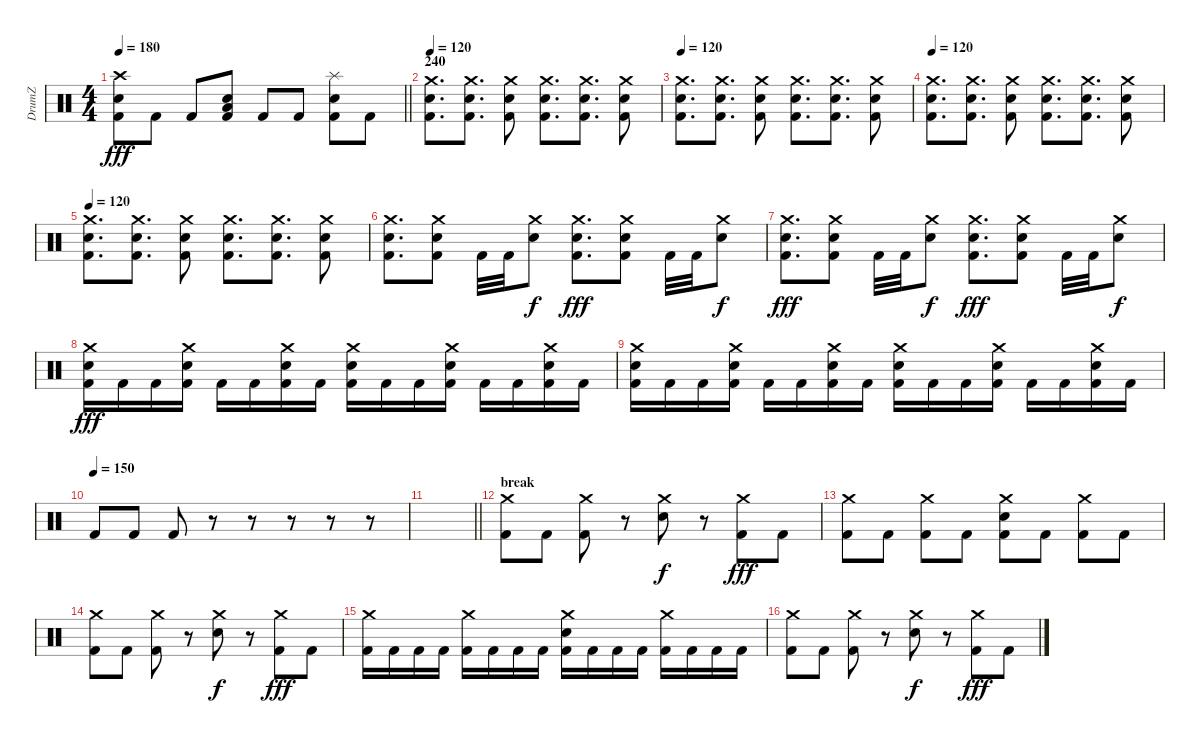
\track ("DrumZ" "DrumZ") {instrument percussion}
\staff {score}
\articulation defaults
\ts (4 4)
\tempo 180
\clef neutral
\barLineRight lightlight
\ks c
("Crash high (hit)" "Electric Snare (hit)" "Kick (hit) 2").8{dy fff} "Kick (hit) 2".8 "Kick (hit) 2".8 ("Low Floor Tom (hit)" "Electric Snare (hit)" "Kick (hit) 2").8 "Kick (hit) 2".8 "Kick (hit) 2".8 ("Splash (hit)" "Electric Snare (hit)" "Kick (hit) 2").8 "Kick (hit) 2".8 |
\section ("" "240")
\tempo 120
("Crash medium (hit)" "Electric Snare (hit)" "Kick (hit) 2").8{d} ("Crash medium (hit)" "Electric Snare (hit)" "Kick (hit) 2").8{d} ("Crash medium (hit)" "Electric Snare (hit)" "Kick (hit) 2").8 ("Crash medium (hit)" "Electric Snare (hit)" "Kick (hit) 2").8{d} ("Crash medium (hit)" "Electric Snare (hit)" "Kick (hit) 2").8{d} ("Crash medium (hit)" "Electric Snare (hit)" "Kick (hit) 2").8 |
\tempo 120
("Crash medium (hit)" "Electric Snare (hit)" "Kick (hit) 2").8{d} ("Crash medium (hit)" "Electric Snare (hit)" "Kick (hit) 2").8{d} ("Crash medium (hit)" "Electric Snare (hit)" "Kick (hit) 2").8 ("Crash medium (hit)" "Electric Snare (hit)" "Kick (hit) 2").8{d} ("Crash medium (hit)" "Electric Snare (hit)" "Kick (hit) 2").8{d} ("Crash medium (hit)" "Electric Snare (hit)" "Kick (hit) 2").8 |
\tempo 120
("Crash medium (hit)" "Electric Snare (hit)" "Kick (hit) 2").8{d} ("Crash medium (hit)" "Electric Snare (hit)" "Kick (hit) 2").8{d} ("Crash medium (hit)" "Electric Snare (hit)" "Kick (hit) 2").8 ("Crash medium (hit)" "Electric Snare (hit)" "Kick (hit) 2").8{d} ("Crash medium (hit)" "Electric Snare (hit)" "Kick (hit) 2").8{d} ("Crash medium (hit)" "Electric Snare (hit)" "Kick (hit) 2").8 |
\tempo 120
("Crash medium (hit)" "Electric Snare (hit)" "Kick (hit) 2").8{d} ("Crash medium (hit)" "Electric Snare (hit)" "Kick (hit) 2").8{d} ("Crash medium (hit)" "Electric Snare (hit)" "Kick (hit) 2").8 ("Crash medium (hit)" "Electric Snare (hit)" "Kick (hit) 2").8{d} ("Crash medium (hit)" "Electric Snare (hit)" "Kick (hit) 2").8{d} ("Crash medium (hit)" "Electric Snare (hit)" "Kick (hit) 2").8 |
("Crash medium (hit)" "Electric Snare (hit)" "Kick (hit) 2").8{d} ("Crash medium (hit)" "Electric Snare (hit)" "Kick (hit) 2").8 "Kick (hit) 2".32 "Kick (hit) 2".32 ("Crash medium (hit)" "Electric Snare (hit)").8{dy f} ("Crash medium (hit)" "Electric Snare (hit)" "Kick (hit) 2").8{d dy fff} ("Crash medium (hit)" "Electric Snare (hit)" "Kick (hit) 2").8 "Kick (hit) 2".32 "Kick (hit) 2".32 ("Crash medium (hit)" "Electric Snare (hit)").8{dy f} |
("Crash medium (hit)" "Electric Snare (hit)" "Kick (hit) 2").8{d dy fff} ("Crash medium (hit)" "Electric Snare (hit)" "Kick (hit) 2").8 "Kick (hit) 2".32 "Kick (hit) 2".32 ("Crash medium (hit)" "Electric Snare (hit)").8{dy f} ("Crash medium (hit)" "Electric Snare (hit)" "Kick (hit) 2").8{d dy fff} ("Crash medium (hit)" "Electric Snare (hit)" "Kick (hit) 2").8 "Kick (hit) 2".32 "Kick (hit) 2".32 ("Crash medium (hit)" "Electric Snare (hit)").8{dy f} |
("Crash medium (hit)" "Electric Snare (hit)" "Kick (hit) 2").16{dy fff} "Kick (hit) 2".16 "Kick (hit) 2".16 ("Crash medium (hit)" "Electric Snare (hit)" "Kick (hit) 2").16 "Kick (hit) 2".16 "Kick (hit) 2".16 ("Crash medium (hit)" "Electric Snare (hit)" "Kick (hit) 2").16 "Kick (hit) 2".16 ("Crash medium (hit)" "Electric Snare (hit)" "Kick (hit) 2").16 "Kick (hit) 2".16 "Kick (hit) 2".16 ("Crash medium (hit)" "Electric Snare (hit)" "Kick (hit) 2").16 "Kick (hit) 2".16 "Kick (hit) 2".16 ("Crash medium (hit)" "Electric Snare (hit)" "Kick (hit) 2").16 "Kick (hit) 2".16 |
("Crash medium (hit)" "Electric Snare (hit)" "Kick (hit) 2").16 "Kick (hit) 2".16 "Kick (hit) 2".16 ("Crash medium (hit)" "Electric Snare (hit)" "Kick (hit) 2").16 "Kick (hit) 2".16 "Kick (hit) 2".16 ("Crash medium (hit)" "Electric Snare (hit)" "Kick (hit) 2").16 "Kick (hit) 2".16 ("Crash medium (hit)" "Electric Snare (hit)" "Kick (hit) 2").16 "Kick (hit) 2".16 "Kick (hit) 2".16 ("Crash medium (hit)" "Electric Snare (hit)" "Kick (hit) 2").16 "Kick (hit) 2".16 "Kick (hit) 2".16 ("Crash medium (hit)" "Electric Snare (hit)" "Kick (hit) 2").16 "Kick (hit) 2".16 |
\tempo (150)
"Kick (hit) 2".8 "Kick (hit) 2".8 "Kick (hit) 2".8 r.8 r.8 r.8 r.8 r.8 |
\barLineRight lightlight
|
\section ("" "break")
("Crash medium (hit)" "Kick (hit) 2").8 "Kick (hit) 2".8 ("Crash medium (hit)" "Kick (hit) 2").8 r.8 ("Crash medium (hit)" "Electric Snare (hit)").8{dy f} r.8 ("Crash medium (hit)" "Kick (hit) 2").8{dy fff} "Kick (hit) 2".8 |
("Crash medium (hit)" "Kick (hit) 2").8 "Kick (hit) 2".8 ("Crash medium (hit)" "Kick (hit) 2").8 "Kick (hit) 2".8 ("Crash medium (hit)" "Electric Snare (hit)" "Kick (hit) 2").8 "Kick (hit) 2".8 ("Crash medium (hit)" "Kick (hit) 2").8 "Kick (hit) 2".8 |
("Crash medium (hit)" "Kick (hit) 2").8 "Kick (hit) 2".8 ("Crash medium (hit)" "Kick (hit) 2").8 r.8 ("Crash medium (hit)" "Electric Snare (hit)").8{dy f} r.8 ("Crash medium (hit)" "Kick (hit) 2").8{dy fff} "Kick (hit) 2".8 |
("Crash medium (hit)" "Kick (hit) 2").16 "Kick (hit) 2".16 "Kick (hit) 2".16 "Kick (hit) 2".16 ("Crash medium (hit)" "Kick (hit) 2").16 "Kick (hit) 2".16 "Kick (hit) 2".16 "Kick (hit) 2".16 ("Crash medium (hit)" "Electric Snare (hit)" "Kick (hit) 2").16 "Kick (hit) 2".16 "Kick (hit) 2".16 "Kick (hit) 2".16 ("Crash medium (hit)" "Kick (hit) 2").16 "Kick (hit) 2".16 "Kick (hit) 2".16 "Kick (hit) 2".16 |
("Crash medium (hit)" "Kick (hit) 2").8 "Kick (hit) 2".8 ("Crash medium (hit)" "Kick (hit) 2").8 r.8 ("Crash medium (hit)" "Electric Snare (hit)").8{dy f} r.8 ("Crash medium (hit)" "Kick (hit) 2").8{dy fff} "Kick (hit) 2".8
